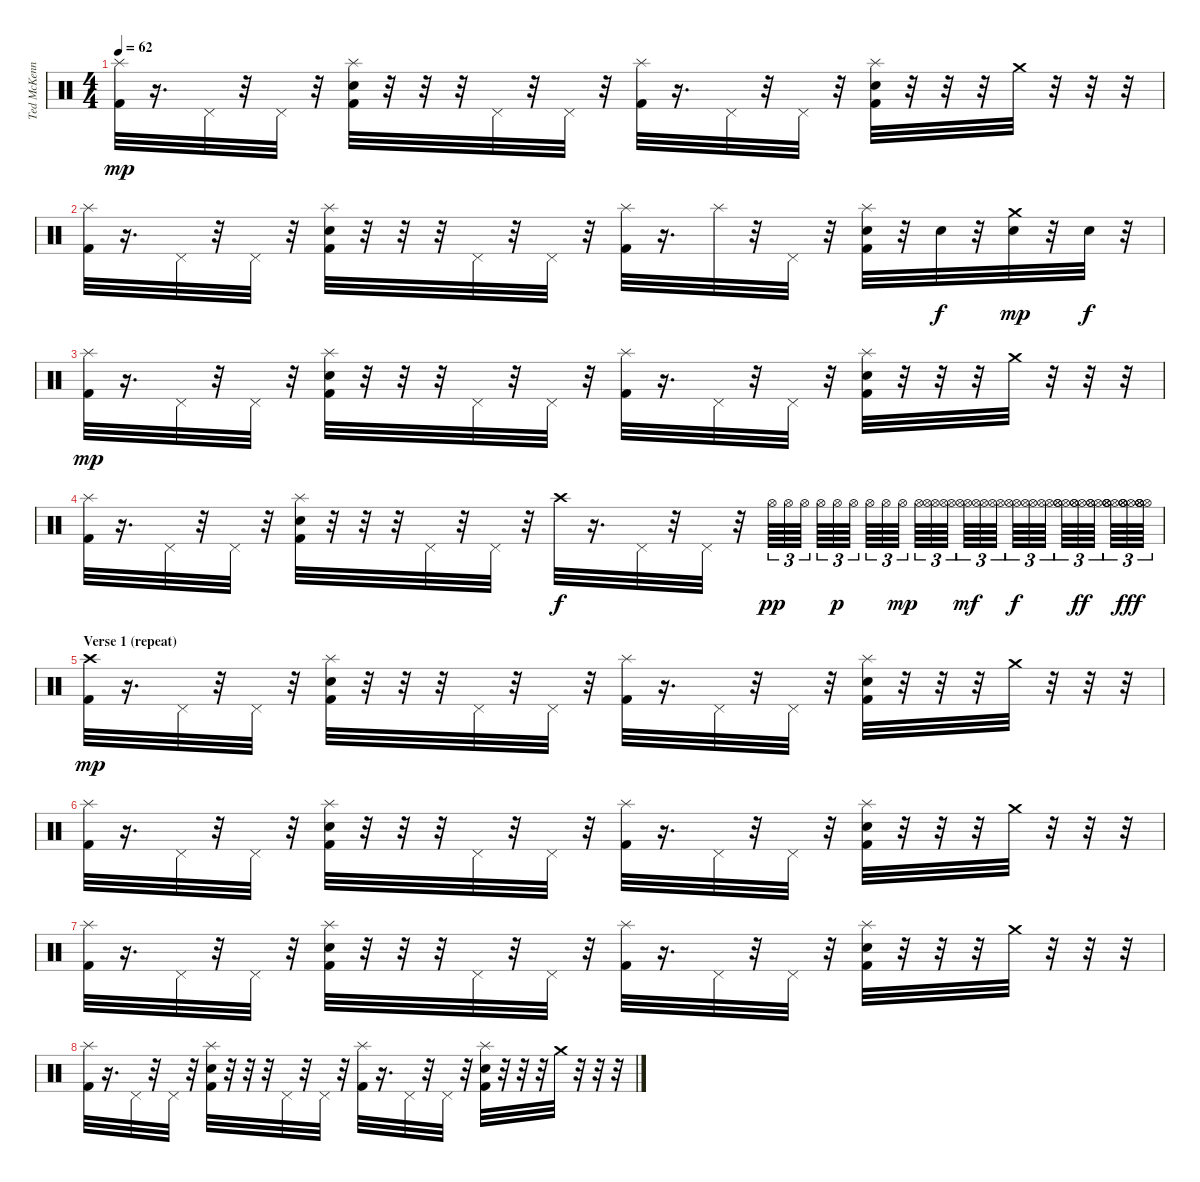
\track ("Ted McKenna" "Ted McKenn") {instrument percussion}
\staff {score}
\articulation defaults
\ts (4 4)
\tempo 62
\clef neutral
\ks c
("Splash (hit)" "Kick (hit) 2").32{dy mp} r.16{d} "Pedal Hi-Hat (hit)".32 r.32 "Pedal Hi-Hat (hit)".32 r.32 ("Splash (hit)" "Electric Snare (hit)" "Kick (hit) 2").32 r.32 r.32 r.32 "Pedal Hi-Hat (hit)".32 r.32 "Pedal Hi-Hat (hit)".32 r.32 ("Splash (hit)" "Kick (hit) 2").32 r.16{d} "Pedal Hi-Hat (hit)".32 r.32 "Pedal Hi-Hat (hit)".32 r.32 ("Splash (hit)" "Electric Snare (hit)" "Kick (hit) 2").32 r.32 r.32 r.32 "Crash medium (hit)".32 r.32 r.32 r.32 |
("Splash (hit)" "Kick (hit) 2").32 r.16{d} "Pedal Hi-Hat (hit)".32 r.32 "Pedal Hi-Hat (hit)".32 r.32 ("Splash (hit)" "Electric Snare (hit)" "Kick (hit) 2").32 r.32 r.32 r.32 "Pedal Hi-Hat (hit)".32 r.32 "Pedal Hi-Hat (hit)".32 r.32 ("Splash (hit)" "Kick (hit) 2").32 r.16{d} "Splash (hit)".32 r.32 "Pedal Hi-Hat (hit)".32 r.32 ("Splash (hit)" "Electric Snare (hit)" "Kick (hit) 2").32 r.32 "Electric Snare (hit)".32{dy f} r.32 ("Crash medium (hit)" "Electric Snare (hit)").32{dy mp} r.32 "Electric Snare (hit)".32{dy f} r.32 |
("Splash (hit)" "Kick (hit) 2").32{dy mp} r.16{d} "Pedal Hi-Hat (hit)".32 r.32 "Pedal Hi-Hat (hit)".32 r.32 ("Splash (hit)" "Electric Snare (hit)" "Kick (hit) 2").32 r.32 r.32 r.32 "Pedal Hi-Hat (hit)".32 r.32 "Pedal Hi-Hat (hit)".32 r.32 ("Splash (hit)" "Kick (hit) 2").32 r.16{d} "Pedal Hi-Hat (hit)".32 r.32 "Pedal Hi-Hat (hit)".32 r.32 ("Splash (hit)" "Electric Snare (hit)" "Kick (hit) 2").32 r.32 r.32 r.32 "Crash medium (hit)".32 r.32 r.32 r.32 |
("Splash (hit)" "Kick (hit) 2").32 r.16{d} "Pedal Hi-Hat (hit)".32 r.32 "Pedal Hi-Hat (hit)".32 r.32 ("Splash (hit)" "Electric Snare (hit)" "Kick (hit) 2").32 r.32 r.32 r.32 "Pedal Hi-Hat (hit)".32 r.32 "Pedal Hi-Hat (hit)".32 r.32 "Crash high (hit)".32{dy f volume 14} r.16{d} "Pedal Hi-Hat (hit)".32 r.32 "Pedal Hi-Hat (hit)".32 r.32 "Hi-Hat (open)".64{tu (3 2) dy pp} "Hi-Hat (open)".64{tu (3 2)} "Hi-Hat (open)".64{tu (3 2)} "Hi-Hat (open)".64{tu (3 2)} "Hi-Hat (open)".64{tu (3 2) dy p} "Hi-Hat (open)".64{tu (3 2)} "Hi-Hat (open)".64{tu (3 2)} "Hi-Hat (open)".64{tu (3 2)} "Hi-Hat (open)".64{tu (3 2) dy mp} "Hi-Hat (open)".64{tu (3 2)} ("Hi-Hat (open)" "Hi-Hat (open)").64{tu (3 2)} ("Hi-Hat (open)" "Hi-Hat (open)").64{tu (3 2)} ("Hi-Hat (open)" "Hi-Hat (open)").64{tu (3 2) dy mf} ("Hi-Hat (open)" "Hi-Hat (open)").64{tu (3 2)} ("Hi-Hat (open)" "Hi-Hat (open)").64{tu (3 2)} ("Hi-Hat (open)" "Hi-Hat (open)").64{tu (3 2) dy f} ("Hi-Hat (open)" "Hi-Hat (open)").64{tu (3 2)} ("Hi-Hat (open)" "Hi-Hat (open)").64{tu (3 2)} ("Hi-Hat (open)" "Hi-Hat (open)" "Hi-Hat (open)").64{tu (3 2)} ("Hi-Hat (open)" "Hi-Hat (open)" "Hi-Hat (open)").64{tu (3 2) dy ff} ("Hi-Hat (open)" "Hi-Hat (open)" "Hi-Hat (open)").64{tu (3 2)} ("Hi-Hat (open)" "Hi-Hat (open)" "Hi-Hat (open)" "Hi-Hat (open)").64{tu (3 2)} ("Hi-Hat (open)" "Hi-Hat (open)" "Hi-Hat (open)" "Hi-Hat (open)").64{tu (3 2) dy fff} ("Hi-Hat (open)" "Hi-Hat (open)" "Hi-Hat (open)" "Hi-Hat (open)").64{tu (3 2)} |
\section ("" "Verse 1 (repeat)")
("Crash high (hit)" "Kick (hit) 2").32{dy mp} r.16{d} "Pedal Hi-Hat (hit)".32 r.32 "Pedal Hi-Hat (hit)".32 r.32 ("Splash (hit)" "Electric Snare (hit)" "Kick (hit) 2").32 r.32 r.32 r.32 "Pedal Hi-Hat (hit)".32 r.32 "Pedal Hi-Hat (hit)".32 r.32 ("Splash (hit)" "Kick (hit) 2").32 r.16{d} "Pedal Hi-Hat (hit)".32 r.32 "Pedal Hi-Hat (hit)".32 r.32 ("Splash (hit)" "Electric Snare (hit)" "Kick (hit) 2").32 r.32 r.32 r.32 "Crash medium (hit)".32 r.32 r.32 r.32 |
("Splash (hit)" "Kick (hit) 2").32 r.16{d} "Pedal Hi-Hat (hit)".32 r.32 "Pedal Hi-Hat (hit)".32 r.32 ("Splash (hit)" "Electric Snare (hit)" "Kick (hit) 2").32 r.32 r.32 r.32 "Pedal Hi-Hat (hit)".32 r.32 "Pedal Hi-Hat (hit)".32 r.32 ("Splash (hit)" "Kick (hit) 2").32 r.16{d} "Pedal Hi-Hat (hit)".32 r.32 "Pedal Hi-Hat (hit)".32 r.32 ("Splash (hit)" "Electric Snare (hit)" "Kick (hit) 2").32 r.32 r.32 r.32 "Crash medium (hit)".32 r.32 r.32 r.32 |
("Splash (hit)" "Kick (hit) 2").32 r.16{d} "Pedal Hi-Hat (hit)".32 r.32 "Pedal Hi-Hat (hit)".32 r.32 ("Splash (hit)" "Electric Snare (hit)" "Kick (hit) 2").32 r.32 r.32 r.32 "Pedal Hi-Hat (hit)".32 r.32 "Pedal Hi-Hat (hit)".32 r.32 ("Splash (hit)" "Kick (hit) 2").32 r.16{d} "Pedal Hi-Hat (hit)".32 r.32 "Pedal Hi-Hat (hit)".32 r.32 ("Splash (hit)" "Electric Snare (hit)" "Kick (hit) 2").32 r.32 r.32 r.32 "Crash medium (hit)".32 r.32 r.32 r.32 |
("Splash (hit)" "Kick (hit) 2").32 r.16{d} "Pedal Hi-Hat (hit)".32 r.32 "Pedal Hi-Hat (hit)".32 r.32 ("Splash (hit)" "Electric Snare (hit)" "Kick (hit) 2").32 r.32 r.32 r.32 "Pedal Hi-Hat (hit)".32 r.32 "Pedal Hi-Hat (hit)".32 r.32 ("Splash (hit)" "Kick (hit) 2").32 r.16{d} "Pedal Hi-Hat (hit)".32 r.32 "Pedal Hi-Hat (hit)".32 r.32 ("Splash (hit)" "Electric Snare (hit)" "Kick (hit) 2").32 r.32 r.32 r.32 "Crash medium (hit)".32 r.32 r.32 r.32
